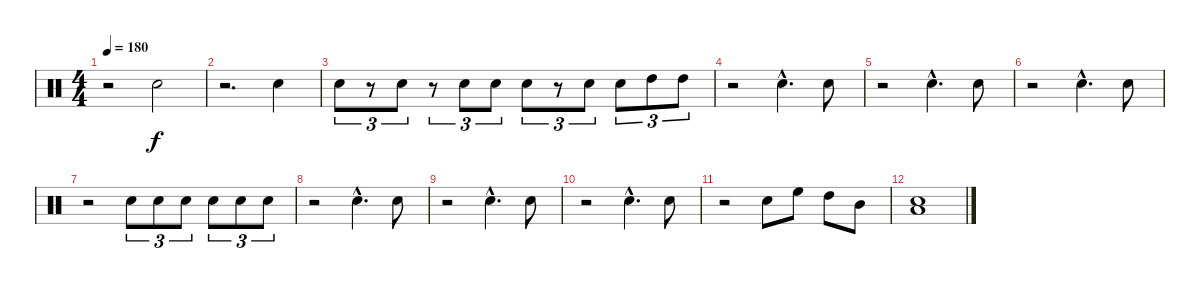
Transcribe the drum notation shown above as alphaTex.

\track "" {instrument percussion}
\staff {score}
\articulation defaults
\ts (4 4)
\tempo 180
\clef neutral
\ks c
r.2{dy f} "Electric Snare (hit)".2 |
r.2{d} "Electric Snare (hit)".4 |
"Electric Snare (hit)".8{tu (3 2)} r.8{tu (3 2)} "Electric Snare (hit)".8{tu (3 2)} r.8{tu (3 2)} "Electric Snare (hit)".8{tu (3 2)} "Electric Snare (hit)".8{tu (3 2)} "Electric Snare (hit)".8{tu (3 2)} r.8{tu (3 2)} "Electric Snare (hit)".8{tu (3 2)} "Electric Snare (hit)".8{tu (3 2)} "High Tom (hit)".8{tu (3 2)} "High Tom (hit)".8{tu (3 2)} |
r.2 "Electric Snare (hit)"{hac}.4{d} "Electric Snare (hit)".8 |
r.2 "Electric Snare (hit)"{hac}.4{d} "Electric Snare (hit)".8 |
r.2 "Electric Snare (hit)"{hac}.4{d} "Electric Snare (hit)".8 |
r.2 "Electric Snare (hit)".8{tu (3 2)} "Electric Snare (hit)".8{tu (3 2)} "Electric Snare (hit)".8{tu (3 2)} "Electric Snare (hit)".8{tu (3 2)} "Electric Snare (hit)".8{tu (3 2)} "Electric Snare (hit)".8{tu (3 2)} |
r.2 "Electric Snare (hit)"{hac}.4{d} "Electric Snare (hit)".8 |
r.2 "Electric Snare (hit)"{hac}.4{d} "Electric Snare (hit)".8 |
r.2 "Electric Snare (hit)"{hac}.4{d} "Electric Snare (hit)".8 |
r.2 "Electric Snare (hit)".8 "High Floor Tom (hit)".8 "High Tom (hit)".8 "Mid Tom (hit)".8 |
("Low Tom (hit)" "Electric Snare (hit)").1
